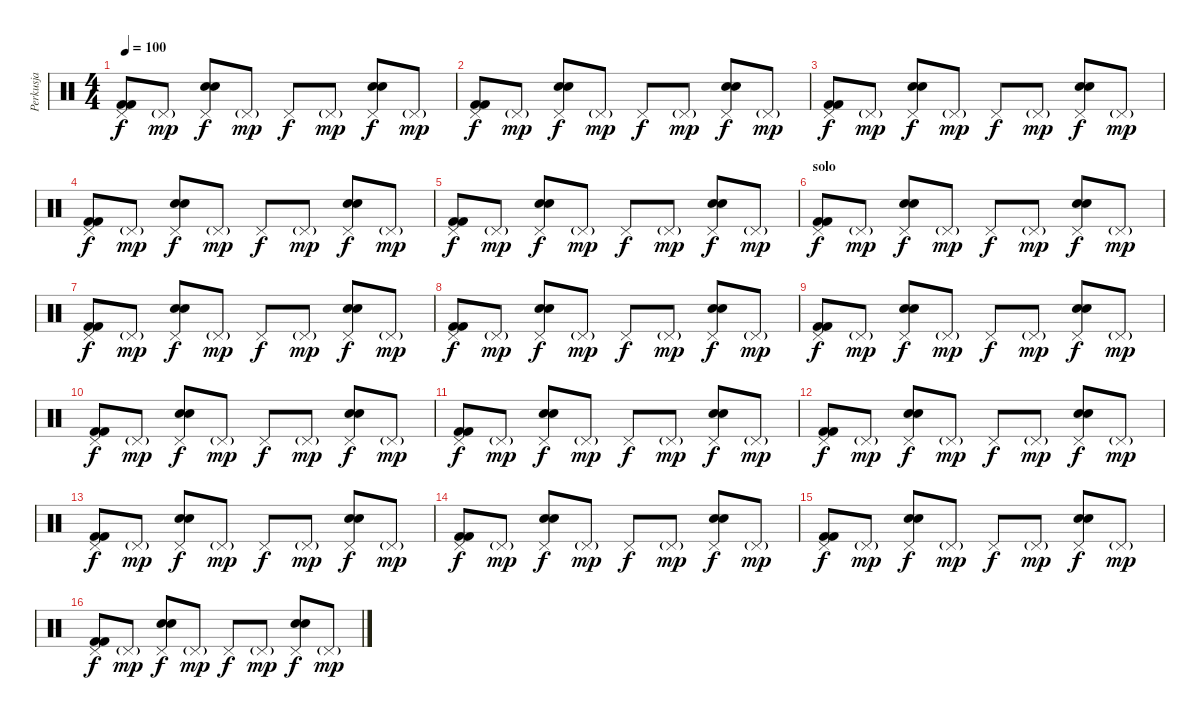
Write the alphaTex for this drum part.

\track ("Perkusja" "Perkusja") {instrument percussion}
\staff {score}
\articulation defaults
\ts (4 4)
\tempo 100
\clef neutral
\ks c
("Pedal Hi-Hat (hit)" "Kick (hit) 2" "Kick (hit) 2").8{dy f} "Pedal Hi-Hat (hit)"{g}.8{dy mp} ("Pedal Hi-Hat (hit)" "Electric Snare (hit)" "Electric Snare (hit)").8{dy f} "Pedal Hi-Hat (hit)"{g}.8{dy mp} "Pedal Hi-Hat (hit)".8{dy f} "Pedal Hi-Hat (hit)"{g}.8{dy mp} ("Pedal Hi-Hat (hit)" "Electric Snare (hit)" "Electric Snare (hit)").8{dy f} "Pedal Hi-Hat (hit)"{g}.8{dy mp} |
("Pedal Hi-Hat (hit)" "Kick (hit) 2" "Kick (hit) 2").8{dy f} "Pedal Hi-Hat (hit)"{g}.8{dy mp} ("Pedal Hi-Hat (hit)" "Electric Snare (hit)" "Electric Snare (hit)").8{dy f} "Pedal Hi-Hat (hit)"{g}.8{dy mp} "Pedal Hi-Hat (hit)".8{dy f} "Pedal Hi-Hat (hit)"{g}.8{dy mp} ("Pedal Hi-Hat (hit)" "Electric Snare (hit)" "Electric Snare (hit)").8{dy f} "Pedal Hi-Hat (hit)"{g}.8{dy mp} |
("Pedal Hi-Hat (hit)" "Kick (hit) 2" "Kick (hit) 2").8{dy f} "Pedal Hi-Hat (hit)"{g}.8{dy mp} ("Pedal Hi-Hat (hit)" "Electric Snare (hit)" "Electric Snare (hit)").8{dy f} "Pedal Hi-Hat (hit)"{g}.8{dy mp} "Pedal Hi-Hat (hit)".8{dy f} "Pedal Hi-Hat (hit)"{g}.8{dy mp} ("Pedal Hi-Hat (hit)" "Electric Snare (hit)" "Electric Snare (hit)").8{dy f} "Pedal Hi-Hat (hit)"{g}.8{dy mp} |
("Pedal Hi-Hat (hit)" "Kick (hit) 2" "Kick (hit) 2").8{dy f} "Pedal Hi-Hat (hit)"{g}.8{dy mp} ("Pedal Hi-Hat (hit)" "Electric Snare (hit)" "Electric Snare (hit)").8{dy f} "Pedal Hi-Hat (hit)"{g}.8{dy mp} "Pedal Hi-Hat (hit)".8{dy f} "Pedal Hi-Hat (hit)"{g}.8{dy mp} ("Pedal Hi-Hat (hit)" "Electric Snare (hit)" "Electric Snare (hit)").8{dy f} "Pedal Hi-Hat (hit)"{g}.8{dy mp} |
("Pedal Hi-Hat (hit)" "Kick (hit) 2" "Kick (hit) 2").8{dy f} "Pedal Hi-Hat (hit)"{g}.8{dy mp} ("Pedal Hi-Hat (hit)" "Electric Snare (hit)" "Electric Snare (hit)").8{dy f} "Pedal Hi-Hat (hit)"{g}.8{dy mp} "Pedal Hi-Hat (hit)".8{dy f} "Pedal Hi-Hat (hit)"{g}.8{dy mp} ("Pedal Hi-Hat (hit)" "Electric Snare (hit)" "Electric Snare (hit)").8{dy f} "Pedal Hi-Hat (hit)"{g}.8{dy mp} |
\section ("" "solo")
("Pedal Hi-Hat (hit)" "Kick (hit) 2" "Kick (hit) 2").8{dy f} "Pedal Hi-Hat (hit)"{g}.8{dy mp} ("Pedal Hi-Hat (hit)" "Electric Snare (hit)" "Electric Snare (hit)").8{dy f} "Pedal Hi-Hat (hit)"{g}.8{dy mp} "Pedal Hi-Hat (hit)".8{dy f} "Pedal Hi-Hat (hit)"{g}.8{dy mp} ("Pedal Hi-Hat (hit)" "Electric Snare (hit)" "Electric Snare (hit)").8{dy f} "Pedal Hi-Hat (hit)"{g}.8{dy mp} |
("Pedal Hi-Hat (hit)" "Kick (hit) 2" "Kick (hit) 2").8{dy f} "Pedal Hi-Hat (hit)"{g}.8{dy mp} ("Pedal Hi-Hat (hit)" "Electric Snare (hit)" "Electric Snare (hit)").8{dy f} "Pedal Hi-Hat (hit)"{g}.8{dy mp} "Pedal Hi-Hat (hit)".8{dy f} "Pedal Hi-Hat (hit)"{g}.8{dy mp} ("Pedal Hi-Hat (hit)" "Electric Snare (hit)" "Electric Snare (hit)").8{dy f} "Pedal Hi-Hat (hit)"{g}.8{dy mp} |
("Pedal Hi-Hat (hit)" "Kick (hit) 2" "Kick (hit) 2").8{dy f} "Pedal Hi-Hat (hit)"{g}.8{dy mp} ("Pedal Hi-Hat (hit)" "Electric Snare (hit)" "Electric Snare (hit)").8{dy f} "Pedal Hi-Hat (hit)"{g}.8{dy mp} "Pedal Hi-Hat (hit)".8{dy f} "Pedal Hi-Hat (hit)"{g}.8{dy mp} ("Pedal Hi-Hat (hit)" "Electric Snare (hit)" "Electric Snare (hit)").8{dy f} "Pedal Hi-Hat (hit)"{g}.8{dy mp} |
("Pedal Hi-Hat (hit)" "Kick (hit) 2" "Kick (hit) 2").8{dy f} "Pedal Hi-Hat (hit)"{g}.8{dy mp} ("Pedal Hi-Hat (hit)" "Electric Snare (hit)" "Electric Snare (hit)").8{dy f} "Pedal Hi-Hat (hit)"{g}.8{dy mp} "Pedal Hi-Hat (hit)".8{dy f} "Pedal Hi-Hat (hit)"{g}.8{dy mp} ("Pedal Hi-Hat (hit)" "Electric Snare (hit)" "Electric Snare (hit)").8{dy f} "Pedal Hi-Hat (hit)"{g}.8{dy mp} |
("Pedal Hi-Hat (hit)" "Kick (hit) 2" "Kick (hit) 2").8{dy f} "Pedal Hi-Hat (hit)"{g}.8{dy mp} ("Pedal Hi-Hat (hit)" "Electric Snare (hit)" "Electric Snare (hit)").8{dy f} "Pedal Hi-Hat (hit)"{g}.8{dy mp} "Pedal Hi-Hat (hit)".8{dy f} "Pedal Hi-Hat (hit)"{g}.8{dy mp} ("Pedal Hi-Hat (hit)" "Electric Snare (hit)" "Electric Snare (hit)").8{dy f} "Pedal Hi-Hat (hit)"{g}.8{dy mp} |
("Pedal Hi-Hat (hit)" "Kick (hit) 2" "Kick (hit) 2").8{dy f} "Pedal Hi-Hat (hit)"{g}.8{dy mp} ("Pedal Hi-Hat (hit)" "Electric Snare (hit)" "Electric Snare (hit)").8{dy f} "Pedal Hi-Hat (hit)"{g}.8{dy mp} "Pedal Hi-Hat (hit)".8{dy f} "Pedal Hi-Hat (hit)"{g}.8{dy mp} ("Pedal Hi-Hat (hit)" "Electric Snare (hit)" "Electric Snare (hit)").8{dy f} "Pedal Hi-Hat (hit)"{g}.8{dy mp} |
("Pedal Hi-Hat (hit)" "Kick (hit) 2" "Kick (hit) 2").8{dy f} "Pedal Hi-Hat (hit)"{g}.8{dy mp} ("Pedal Hi-Hat (hit)" "Electric Snare (hit)" "Electric Snare (hit)").8{dy f} "Pedal Hi-Hat (hit)"{g}.8{dy mp} "Pedal Hi-Hat (hit)".8{dy f} "Pedal Hi-Hat (hit)"{g}.8{dy mp} ("Pedal Hi-Hat (hit)" "Electric Snare (hit)" "Electric Snare (hit)").8{dy f} "Pedal Hi-Hat (hit)"{g}.8{dy mp} |
\ks aminor
("Pedal Hi-Hat (hit)" "Kick (hit) 2" "Kick (hit) 2").8{dy f} "Pedal Hi-Hat (hit)"{g}.8{dy mp} ("Pedal Hi-Hat (hit)" "Electric Snare (hit)" "Electric Snare (hit)").8{dy f} "Pedal Hi-Hat (hit)"{g}.8{dy mp} "Pedal Hi-Hat (hit)".8{dy f} "Pedal Hi-Hat (hit)"{g}.8{dy mp} ("Pedal Hi-Hat (hit)" "Electric Snare (hit)" "Electric Snare (hit)").8{dy f} "Pedal Hi-Hat (hit)"{g}.8{dy mp} |
("Pedal Hi-Hat (hit)" "Kick (hit) 2" "Kick (hit) 2").8{dy f} "Pedal Hi-Hat (hit)"{g}.8{dy mp} ("Pedal Hi-Hat (hit)" "Electric Snare (hit)" "Electric Snare (hit)").8{dy f} "Pedal Hi-Hat (hit)"{g}.8{dy mp} "Pedal Hi-Hat (hit)".8{dy f} "Pedal Hi-Hat (hit)"{g}.8{dy mp} ("Pedal Hi-Hat (hit)" "Electric Snare (hit)" "Electric Snare (hit)").8{dy f} "Pedal Hi-Hat (hit)"{g}.8{dy mp} |
("Pedal Hi-Hat (hit)" "Kick (hit) 2" "Kick (hit) 2").8{dy f} "Pedal Hi-Hat (hit)"{g}.8{dy mp} ("Pedal Hi-Hat (hit)" "Electric Snare (hit)" "Electric Snare (hit)").8{dy f} "Pedal Hi-Hat (hit)"{g}.8{dy mp} "Pedal Hi-Hat (hit)".8{dy f} "Pedal Hi-Hat (hit)"{g}.8{dy mp} ("Pedal Hi-Hat (hit)" "Electric Snare (hit)" "Electric Snare (hit)").8{dy f} "Pedal Hi-Hat (hit)"{g}.8{dy mp} |
("Pedal Hi-Hat (hit)" "Kick (hit) 2" "Kick (hit) 2").8{dy f} "Pedal Hi-Hat (hit)"{g}.8{dy mp} ("Pedal Hi-Hat (hit)" "Electric Snare (hit)" "Electric Snare (hit)").8{dy f} "Pedal Hi-Hat (hit)"{g}.8{dy mp} "Pedal Hi-Hat (hit)".8{dy f} "Pedal Hi-Hat (hit)"{g}.8{dy mp} ("Pedal Hi-Hat (hit)" "Electric Snare (hit)" "Electric Snare (hit)").8{dy f} "Pedal Hi-Hat (hit)"{g}.8{dy mp}
